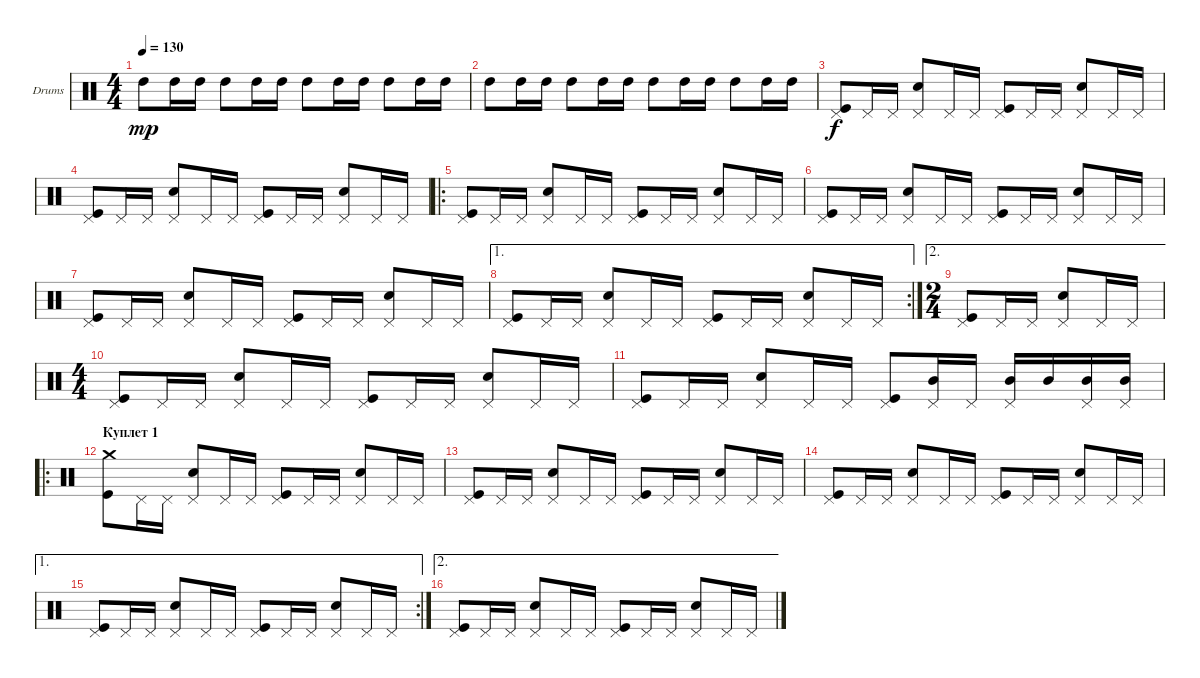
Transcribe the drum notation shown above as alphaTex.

\bracketExtendMode groupsimilarinstruments
\firstSystemTrackNameOrientation horizontal
\otherSystemsTrackNameOrientation horizontal
\track ("Drumkit" "Drums") {instrument percussion}
\staff {score}
\articulation defaults
\ts (4 4)
\tempo 130
\clef neutral
\ks c "High Tom (hit)".8{dy mp} "High Tom (hit)".16 "High Tom (hit)".16 "High Tom (hit)".8 "High Tom (hit)".16 "High Tom (hit)".16 "High Tom (hit)".8 "High Tom (hit)".16 "High Tom (hit)".16 "High Tom (hit)".8 "High Tom (hit)".16 "High Tom (hit)".16
|
"High Tom (hit)".8 "High Tom (hit)".16 "High Tom (hit)".16 "High Tom (hit)".8 "High Tom (hit)".16 "High Tom (hit)".16 "High Tom (hit)".8 "High Tom (hit)".16 "High Tom (hit)".16 "High Tom (hit)".8 "High Tom (hit)".16 "High Tom (hit)".16 |
("Pedal Hi-Hat (hit)" "Kick (hit)").8{dy f} "Pedal Hi-Hat (hit)".16 "Pedal Hi-Hat (hit)".16 ("Pedal Hi-Hat (hit)" "Snare (hit) 2").8 "Pedal Hi-Hat (hit)".16 "Pedal Hi-Hat (hit)".16 ("Pedal Hi-Hat (hit)" "Kick (hit)").8 "Pedal Hi-Hat (hit)".16 "Pedal Hi-Hat (hit)".16 ("Pedal Hi-Hat (hit)" "Snare (hit) 2").8 "Pedal Hi-Hat (hit)".16 "Pedal Hi-Hat (hit)".16 |
("Pedal Hi-Hat (hit)" "Kick (hit)").8 "Pedal Hi-Hat (hit)".16 "Pedal Hi-Hat (hit)".16 ("Pedal Hi-Hat (hit)" "Snare (hit) 2").8 "Pedal Hi-Hat (hit)".16 "Pedal Hi-Hat (hit)".16 ("Pedal Hi-Hat (hit)" "Kick (hit)").8 "Pedal Hi-Hat (hit)".16 "Pedal Hi-Hat (hit)".16 ("Pedal Hi-Hat (hit)" "Snare (hit) 2").8 "Pedal Hi-Hat (hit)".16 "Pedal Hi-Hat (hit)".16 |
\ro
("Pedal Hi-Hat (hit)" "Kick (hit)").8 "Pedal Hi-Hat (hit)".16 "Pedal Hi-Hat (hit)".16 ("Pedal Hi-Hat (hit)" "Snare (hit) 2").8 "Pedal Hi-Hat (hit)".16 "Pedal Hi-Hat (hit)".16 ("Pedal Hi-Hat (hit)" "Kick (hit)").8 "Pedal Hi-Hat (hit)".16 "Pedal Hi-Hat (hit)".16 ("Pedal Hi-Hat (hit)" "Snare (hit) 2").8 "Pedal Hi-Hat (hit)".16 "Pedal Hi-Hat (hit)".16 |
("Pedal Hi-Hat (hit)" "Kick (hit)").8 "Pedal Hi-Hat (hit)".16 "Pedal Hi-Hat (hit)".16 ("Pedal Hi-Hat (hit)" "Snare (hit) 2").8 "Pedal Hi-Hat (hit)".16 "Pedal Hi-Hat (hit)".16 ("Pedal Hi-Hat (hit)" "Kick (hit)").8 "Pedal Hi-Hat (hit)".16 "Pedal Hi-Hat (hit)".16 ("Pedal Hi-Hat (hit)" "Snare (hit) 2").8 "Pedal Hi-Hat (hit)".16 "Pedal Hi-Hat (hit)".16 |
("Pedal Hi-Hat (hit)" "Kick (hit)").8 "Pedal Hi-Hat (hit)".16 "Pedal Hi-Hat (hit)".16 ("Pedal Hi-Hat (hit)" "Snare (hit) 2").8 "Pedal Hi-Hat (hit)".16 "Pedal Hi-Hat (hit)".16 ("Pedal Hi-Hat (hit)" "Kick (hit)").8 "Pedal Hi-Hat (hit)".16 "Pedal Hi-Hat (hit)".16 ("Pedal Hi-Hat (hit)" "Snare (hit) 2").8 "Pedal Hi-Hat (hit)".16 "Pedal Hi-Hat (hit)".16 |
\ae 1
\rc 2
("Pedal Hi-Hat (hit)" "Kick (hit)").8 "Pedal Hi-Hat (hit)".16 "Pedal Hi-Hat (hit)".16 ("Pedal Hi-Hat (hit)" "Snare (hit) 2").8 "Pedal Hi-Hat (hit)".16 "Pedal Hi-Hat (hit)".16 ("Pedal Hi-Hat (hit)" "Kick (hit)").8 "Pedal Hi-Hat (hit)".16 "Pedal Hi-Hat (hit)".16 ("Pedal Hi-Hat (hit)" "Snare (hit) 2").8 "Pedal Hi-Hat (hit)".16 "Pedal Hi-Hat (hit)".16 |
\ae 2
\ts (2 4)
("Pedal Hi-Hat (hit)" "Kick (hit)").8 "Pedal Hi-Hat (hit)".16 "Pedal Hi-Hat (hit)".16 ("Pedal Hi-Hat (hit)" "Snare (hit) 2").8 "Pedal Hi-Hat (hit)".16 "Pedal Hi-Hat (hit)".16 |
\ts (4 4)
("Pedal Hi-Hat (hit)" "Kick (hit)").8 "Pedal Hi-Hat (hit)".16 "Pedal Hi-Hat (hit)".16 ("Pedal Hi-Hat (hit)" "Snare (hit) 2").8 "Pedal Hi-Hat (hit)".16 "Pedal Hi-Hat (hit)".16 ("Pedal Hi-Hat (hit)" "Kick (hit)").8 "Pedal Hi-Hat (hit)".16 "Pedal Hi-Hat (hit)".16 ("Pedal Hi-Hat (hit)" "Snare (hit) 2").8 "Pedal Hi-Hat (hit)".16 "Pedal Hi-Hat (hit)".16 |
("Pedal Hi-Hat (hit)" "Kick (hit)").8 "Pedal Hi-Hat (hit)".16 "Pedal Hi-Hat (hit)".16 ("Pedal Hi-Hat (hit)" "Snare (hit) 2").8 "Pedal Hi-Hat (hit)".16 "Pedal Hi-Hat (hit)".16 ("Pedal Hi-Hat (hit)" "Kick (hit)").8 ("Pedal Hi-Hat (hit)" "Mid Tom (hit)").16 "Pedal Hi-Hat (hit)".16 ("Pedal Hi-Hat (hit)" "Mid Tom (hit)").16 "Mid Tom (hit)".16 ("Pedal Hi-Hat (hit)" "Mid Tom (hit)").16 ("Pedal Hi-Hat (hit)" "Mid Tom (hit)").16 |
\ro
\section ("" "Куплет 1")
("Crash medium (hit)" "Kick (hit)").8 "Pedal Hi-Hat (hit)".16 "Pedal Hi-Hat (hit)".16 ("Pedal Hi-Hat (hit)" "Snare (hit) 2").8 "Pedal Hi-Hat (hit)".16 "Pedal Hi-Hat (hit)".16 ("Pedal Hi-Hat (hit)" "Kick (hit)").8 "Pedal Hi-Hat (hit)".16 "Pedal Hi-Hat (hit)".16 ("Pedal Hi-Hat (hit)" "Snare (hit) 2").8 "Pedal Hi-Hat (hit)".16 "Pedal Hi-Hat (hit)".16 |
("Pedal Hi-Hat (hit)" "Kick (hit)").8 "Pedal Hi-Hat (hit)".16 "Pedal Hi-Hat (hit)".16 ("Pedal Hi-Hat (hit)" "Snare (hit) 2").8 "Pedal Hi-Hat (hit)".16 "Pedal Hi-Hat (hit)".16 ("Pedal Hi-Hat (hit)" "Kick (hit)").8 "Pedal Hi-Hat (hit)".16 "Pedal Hi-Hat (hit)".16 ("Pedal Hi-Hat (hit)" "Snare (hit) 2").8 "Pedal Hi-Hat (hit)".16 "Pedal Hi-Hat (hit)".16 |
("Pedal Hi-Hat (hit)" "Kick (hit)").8 "Pedal Hi-Hat (hit)".16 "Pedal Hi-Hat (hit)".16 ("Pedal Hi-Hat (hit)" "Snare (hit) 2").8 "Pedal Hi-Hat (hit)".16 "Pedal Hi-Hat (hit)".16 ("Pedal Hi-Hat (hit)" "Kick (hit)").8 "Pedal Hi-Hat (hit)".16 "Pedal Hi-Hat (hit)".16 ("Pedal Hi-Hat (hit)" "Snare (hit) 2").8 "Pedal Hi-Hat (hit)".16 "Pedal Hi-Hat (hit)".16 |
\ae 1
\rc 2
("Pedal Hi-Hat (hit)" "Kick (hit)").8 "Pedal Hi-Hat (hit)".16 "Pedal Hi-Hat (hit)".16 ("Pedal Hi-Hat (hit)" "Snare (hit) 2").8 "Pedal Hi-Hat (hit)".16 "Pedal Hi-Hat (hit)".16 ("Pedal Hi-Hat (hit)" "Kick (hit)").8 "Pedal Hi-Hat (hit)".16 "Pedal Hi-Hat (hit)".16 ("Pedal Hi-Hat (hit)" "Snare (hit) 2").8 "Pedal Hi-Hat (hit)".16 "Pedal Hi-Hat (hit)".16 |
\ae 2
("Pedal Hi-Hat (hit)" "Kick (hit)").8 "Pedal Hi-Hat (hit)".16 "Pedal Hi-Hat (hit)".16 ("Pedal Hi-Hat (hit)" "Snare (hit) 2").8 "Pedal Hi-Hat (hit)".16 "Pedal Hi-Hat (hit)".16 ("Pedal Hi-Hat (hit)" "Kick (hit)").8 "Pedal Hi-Hat (hit)".16 "Pedal Hi-Hat (hit)".16 ("Pedal Hi-Hat (hit)" "Snare (hit) 2").8 "Pedal Hi-Hat (hit)".16 "Pedal Hi-Hat (hit)".16
